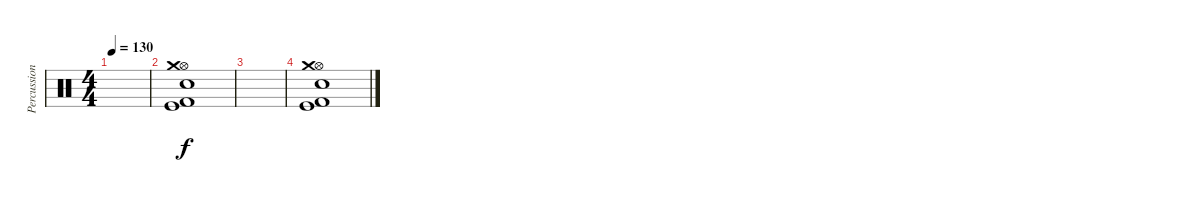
\track ("Percussions" "Percussion") {instrument percussion}
\staff {score}
\articulation defaults
\ts (4 4)
\tempo 130
\clef neutral
\ks c
|
("Hi-Hat (open)" "Crash medium (hit)" "Kick (hit)" "Snare (hit) 2" "Kick (hit) 2").1 |
|
("Hi-Hat (open)" "Crash medium (hit)" "Kick (hit)" "Snare (hit) 2" "Kick (hit) 2").1
